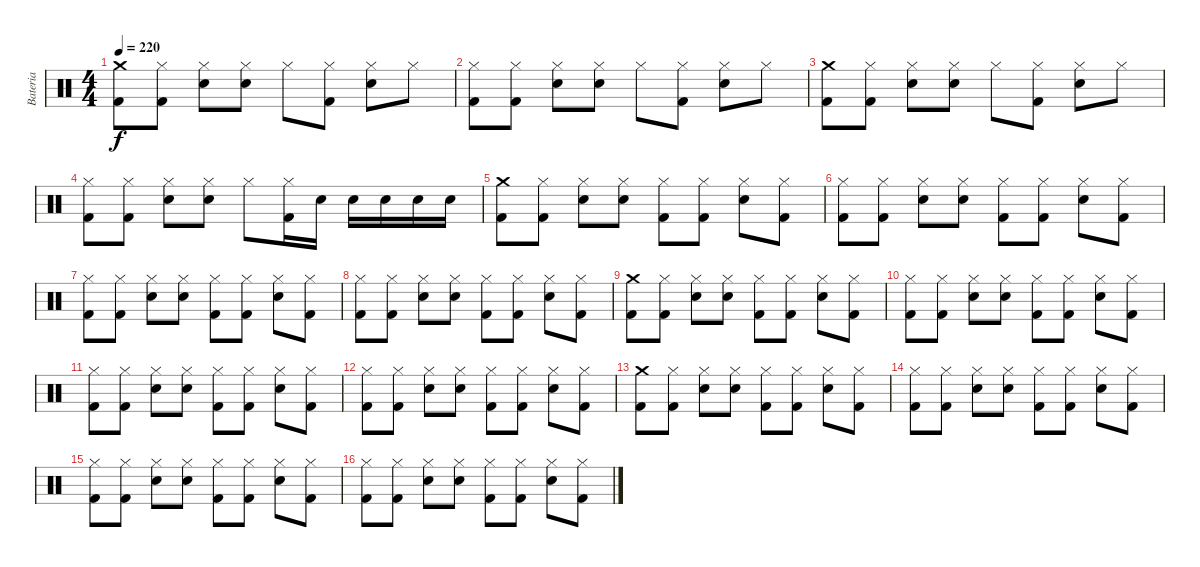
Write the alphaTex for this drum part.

\track ("Bateria" "Bateria") {instrument percussion}
\staff {score}
\articulation defaults
\ts (4 4)
\tempo 220
\clef neutral
\ks c
("Crash medium (hit)" "Kick (hit) 2").8{dy f} ("Hi-Hat (closed)" "Kick (hit) 2").8 ("Hi-Hat (closed)" "Electric Snare (hit)").8 ("Hi-Hat (closed)" "Electric Snare (hit)").8 "Hi-Hat (closed)".8 ("Hi-Hat (closed)" "Kick (hit) 2").8 ("Hi-Hat (closed)" "Electric Snare (hit)").8 "Hi-Hat (closed)".8 |
("Hi-Hat (closed)" "Kick (hit) 2").8 ("Hi-Hat (closed)" "Kick (hit) 2").8 ("Hi-Hat (closed)" "Electric Snare (hit)").8 ("Hi-Hat (closed)" "Electric Snare (hit)").8 "Hi-Hat (closed)".8 ("Hi-Hat (closed)" "Kick (hit) 2").8 ("Hi-Hat (closed)" "Electric Snare (hit)").8 "Hi-Hat (closed)".8 |
("Crash medium (hit)" "Kick (hit) 2").8 ("Hi-Hat (closed)" "Kick (hit) 2").8 ("Hi-Hat (closed)" "Electric Snare (hit)").8 ("Hi-Hat (closed)" "Electric Snare (hit)").8 "Hi-Hat (closed)".8 ("Hi-Hat (closed)" "Kick (hit) 2").8 ("Hi-Hat (closed)" "Electric Snare (hit)").8 "Hi-Hat (closed)".8 |
("Hi-Hat (closed)" "Kick (hit) 2").8 ("Hi-Hat (closed)" "Kick (hit) 2").8 ("Hi-Hat (closed)" "Electric Snare (hit)").8 ("Hi-Hat (closed)" "Electric Snare (hit)").8 "Hi-Hat (closed)".8 ("Hi-Hat (closed)" "Kick (hit) 2").16 "Electric Snare (hit)".16 "Electric Snare (hit)".16 "Electric Snare (hit)".16 "Electric Snare (hit)".16 "Electric Snare (hit)".16 |
("Crash medium (hit)" "Kick (hit) 2").8 ("Hi-Hat (closed)" "Kick (hit) 2").8 ("Hi-Hat (closed)" "Electric Snare (hit)").8 ("Hi-Hat (closed)" "Electric Snare (hit)").8 ("Hi-Hat (closed)" "Kick (hit) 2").8 ("Hi-Hat (closed)" "Kick (hit) 2").8 ("Hi-Hat (closed)" "Electric Snare (hit)").8 ("Hi-Hat (closed)" "Kick (hit) 2").8 |
("Hi-Hat (closed)" "Kick (hit) 2").8 ("Hi-Hat (closed)" "Kick (hit) 2").8 ("Hi-Hat (closed)" "Electric Snare (hit)").8 ("Hi-Hat (closed)" "Electric Snare (hit)").8 ("Hi-Hat (closed)" "Kick (hit) 2").8 ("Hi-Hat (closed)" "Kick (hit) 2").8 ("Hi-Hat (closed)" "Electric Snare (hit)").8 ("Hi-Hat (closed)" "Kick (hit) 2").8 |
("Hi-Hat (closed)" "Kick (hit) 2").8 ("Hi-Hat (closed)" "Kick (hit) 2").8 ("Hi-Hat (closed)" "Electric Snare (hit)").8 ("Hi-Hat (closed)" "Electric Snare (hit)").8 ("Hi-Hat (closed)" "Kick (hit) 2").8 ("Hi-Hat (closed)" "Kick (hit) 2").8 ("Hi-Hat (closed)" "Electric Snare (hit)").8 ("Hi-Hat (closed)" "Kick (hit) 2").8 |
("Hi-Hat (closed)" "Kick (hit) 2").8 ("Hi-Hat (closed)" "Kick (hit) 2").8 ("Hi-Hat (closed)" "Electric Snare (hit)").8 ("Hi-Hat (closed)" "Electric Snare (hit)").8 ("Hi-Hat (closed)" "Kick (hit) 2").8 ("Hi-Hat (closed)" "Kick (hit) 2").8 ("Hi-Hat (closed)" "Electric Snare (hit)").8 ("Hi-Hat (closed)" "Kick (hit) 2").8 |
("Crash medium (hit)" "Kick (hit) 2").8 ("Hi-Hat (closed)" "Kick (hit) 2").8 ("Hi-Hat (closed)" "Electric Snare (hit)").8 ("Hi-Hat (closed)" "Electric Snare (hit)").8 ("Hi-Hat (closed)" "Kick (hit) 2").8 ("Hi-Hat (closed)" "Kick (hit) 2").8 ("Hi-Hat (closed)" "Electric Snare (hit)").8 ("Hi-Hat (closed)" "Kick (hit) 2").8 |
("Hi-Hat (closed)" "Kick (hit) 2").8 ("Hi-Hat (closed)" "Kick (hit) 2").8 ("Hi-Hat (closed)" "Electric Snare (hit)").8 ("Hi-Hat (closed)" "Electric Snare (hit)").8 ("Hi-Hat (closed)" "Kick (hit) 2").8 ("Hi-Hat (closed)" "Kick (hit) 2").8 ("Hi-Hat (closed)" "Electric Snare (hit)").8 ("Hi-Hat (closed)" "Kick (hit) 2").8 |
("Hi-Hat (closed)" "Kick (hit) 2").8 ("Hi-Hat (closed)" "Kick (hit) 2").8 ("Hi-Hat (closed)" "Electric Snare (hit)").8 ("Hi-Hat (closed)" "Electric Snare (hit)").8 ("Hi-Hat (closed)" "Kick (hit) 2").8 ("Hi-Hat (closed)" "Kick (hit) 2").8 ("Hi-Hat (closed)" "Electric Snare (hit)").8 ("Hi-Hat (closed)" "Kick (hit) 2").8 |
("Hi-Hat (closed)" "Kick (hit) 2").8 ("Hi-Hat (closed)" "Kick (hit) 2").8 ("Hi-Hat (closed)" "Electric Snare (hit)").8 ("Hi-Hat (closed)" "Electric Snare (hit)").8 ("Hi-Hat (closed)" "Kick (hit) 2").8 ("Hi-Hat (closed)" "Kick (hit) 2").8 ("Hi-Hat (closed)" "Electric Snare (hit)").8 ("Hi-Hat (closed)" "Kick (hit) 2").8 |
("Crash medium (hit)" "Kick (hit) 2").8 ("Hi-Hat (closed)" "Kick (hit) 2").8 ("Hi-Hat (closed)" "Electric Snare (hit)").8 ("Hi-Hat (closed)" "Electric Snare (hit)").8 ("Hi-Hat (closed)" "Kick (hit) 2").8 ("Hi-Hat (closed)" "Kick (hit) 2").8 ("Hi-Hat (closed)" "Electric Snare (hit)").8 ("Hi-Hat (closed)" "Kick (hit) 2").8 |
("Hi-Hat (closed)" "Kick (hit) 2").8 ("Hi-Hat (closed)" "Kick (hit) 2").8 ("Hi-Hat (closed)" "Electric Snare (hit)").8 ("Hi-Hat (closed)" "Electric Snare (hit)").8 ("Hi-Hat (closed)" "Kick (hit) 2").8 ("Hi-Hat (closed)" "Kick (hit) 2").8 ("Hi-Hat (closed)" "Electric Snare (hit)").8 ("Hi-Hat (closed)" "Kick (hit) 2").8 |
("Hi-Hat (closed)" "Kick (hit) 2").8 ("Hi-Hat (closed)" "Kick (hit) 2").8 ("Hi-Hat (closed)" "Electric Snare (hit)").8 ("Hi-Hat (closed)" "Electric Snare (hit)").8 ("Hi-Hat (closed)" "Kick (hit) 2").8 ("Hi-Hat (closed)" "Kick (hit) 2").8 ("Hi-Hat (closed)" "Electric Snare (hit)").8 ("Hi-Hat (closed)" "Kick (hit) 2").8 |
("Hi-Hat (closed)" "Kick (hit) 2").8 ("Hi-Hat (closed)" "Kick (hit) 2").8 ("Hi-Hat (closed)" "Electric Snare (hit)").8 ("Hi-Hat (closed)" "Electric Snare (hit)").8 ("Hi-Hat (closed)" "Kick (hit) 2").8 ("Hi-Hat (closed)" "Kick (hit) 2").8 ("Hi-Hat (closed)" "Electric Snare (hit)").8 ("Hi-Hat (closed)" "Kick (hit) 2").8
